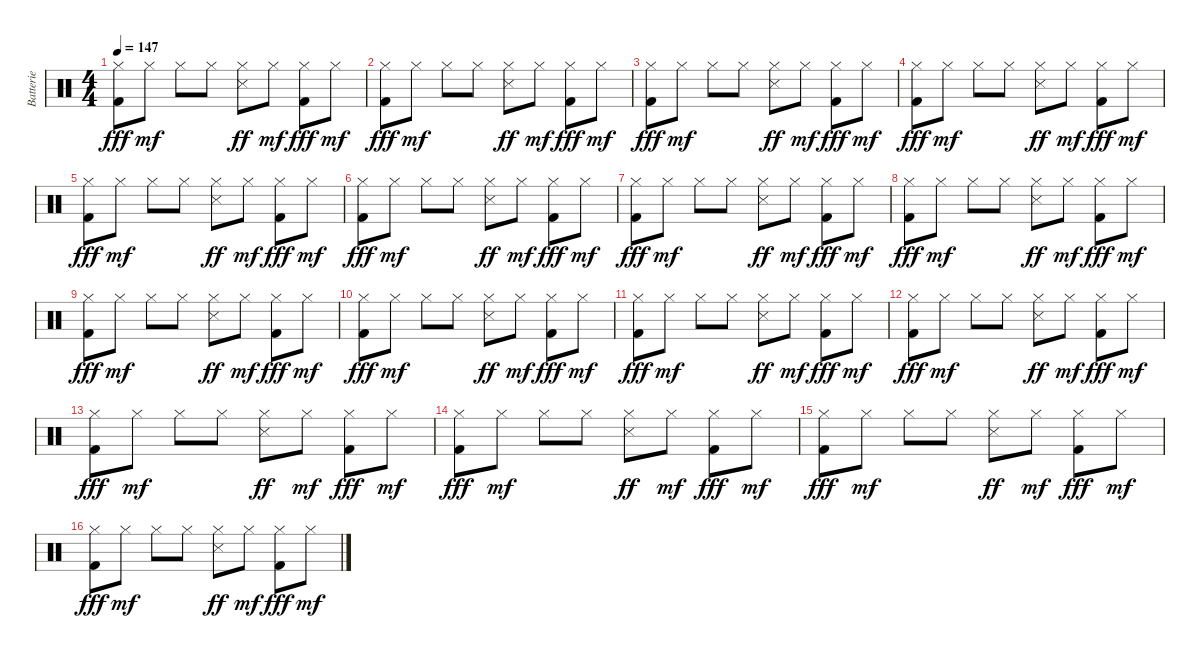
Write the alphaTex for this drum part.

\track ("Batterie" "Batterie") {instrument percussion}
\staff {score}
\articulation defaults
\ts (4 4)
\tempo 147
\clef neutral
\ks c
("Hi-Hat (closed)" "Kick (hit) 2").8{dy fff} "Hi-Hat (closed)".8{dy mf} "Hi-Hat (closed)".8 "Hi-Hat (closed)".8 ("Hi-Hat (closed)" "Snare (side stick) 3").8{dy ff} "Hi-Hat (closed)".8{dy mf} ("Hi-Hat (closed)" "Kick (hit) 2").8{dy fff} "Hi-Hat (closed)".8{dy mf} |
("Hi-Hat (closed)" "Kick (hit) 2").8{dy fff} "Hi-Hat (closed)".8{dy mf} "Hi-Hat (closed)".8 "Hi-Hat (closed)".8 ("Hi-Hat (closed)" "Snare (side stick) 3").8{dy ff} "Hi-Hat (closed)".8{dy mf} ("Hi-Hat (closed)" "Kick (hit) 2").8{dy fff} "Hi-Hat (closed)".8{dy mf} |
("Hi-Hat (closed)" "Kick (hit) 2").8{dy fff} "Hi-Hat (closed)".8{dy mf} "Hi-Hat (closed)".8 "Hi-Hat (closed)".8 ("Hi-Hat (closed)" "Snare (side stick) 3").8{dy ff} "Hi-Hat (closed)".8{dy mf} ("Hi-Hat (closed)" "Kick (hit) 2").8{dy fff} "Hi-Hat (closed)".8{dy mf} |
("Hi-Hat (closed)" "Kick (hit) 2").8{dy fff} "Hi-Hat (closed)".8{dy mf} "Hi-Hat (closed)".8 "Hi-Hat (closed)".8 ("Hi-Hat (closed)" "Snare (side stick) 3").8{dy ff} "Hi-Hat (closed)".8{dy mf} ("Hi-Hat (closed)" "Kick (hit) 2").8{dy fff} "Hi-Hat (closed)".8{dy mf} |
("Hi-Hat (closed)" "Kick (hit) 2").8{dy fff} "Hi-Hat (closed)".8{dy mf} "Hi-Hat (closed)".8 "Hi-Hat (closed)".8 ("Hi-Hat (closed)" "Snare (side stick) 3").8{dy ff} "Hi-Hat (closed)".8{dy mf} ("Hi-Hat (closed)" "Kick (hit) 2").8{dy fff} "Hi-Hat (closed)".8{dy mf} |
("Hi-Hat (closed)" "Kick (hit) 2").8{dy fff} "Hi-Hat (closed)".8{dy mf} "Hi-Hat (closed)".8 "Hi-Hat (closed)".8 ("Hi-Hat (closed)" "Snare (side stick) 3").8{dy ff} "Hi-Hat (closed)".8{dy mf} ("Hi-Hat (closed)" "Kick (hit) 2").8{dy fff} "Hi-Hat (closed)".8{dy mf} |
("Hi-Hat (closed)" "Kick (hit) 2").8{dy fff} "Hi-Hat (closed)".8{dy mf} "Hi-Hat (closed)".8 "Hi-Hat (closed)".8 ("Hi-Hat (closed)" "Snare (side stick) 3").8{dy ff} "Hi-Hat (closed)".8{dy mf} ("Hi-Hat (closed)" "Kick (hit) 2").8{dy fff} "Hi-Hat (closed)".8{dy mf} |
("Hi-Hat (closed)" "Kick (hit) 2").8{dy fff} "Hi-Hat (closed)".8{dy mf} "Hi-Hat (closed)".8 "Hi-Hat (closed)".8 ("Hi-Hat (closed)" "Snare (side stick) 3").8{dy ff} "Hi-Hat (closed)".8{dy mf} ("Hi-Hat (closed)" "Kick (hit) 2").8{dy fff} "Hi-Hat (closed)".8{dy mf} |
("Hi-Hat (closed)" "Kick (hit) 2").8{dy fff} "Hi-Hat (closed)".8{dy mf} "Hi-Hat (closed)".8 "Hi-Hat (closed)".8 ("Hi-Hat (closed)" "Snare (side stick) 3").8{dy ff} "Hi-Hat (closed)".8{dy mf} ("Hi-Hat (closed)" "Kick (hit) 2").8{dy fff} "Hi-Hat (closed)".8{dy mf} |
("Hi-Hat (closed)" "Kick (hit) 2").8{dy fff} "Hi-Hat (closed)".8{dy mf} "Hi-Hat (closed)".8 "Hi-Hat (closed)".8 ("Hi-Hat (closed)" "Snare (side stick) 3").8{dy ff} "Hi-Hat (closed)".8{dy mf} ("Hi-Hat (closed)" "Kick (hit) 2").8{dy fff} "Hi-Hat (closed)".8{dy mf} |
("Hi-Hat (closed)" "Kick (hit) 2").8{dy fff} "Hi-Hat (closed)".8{dy mf} "Hi-Hat (closed)".8 "Hi-Hat (closed)".8 ("Hi-Hat (closed)" "Snare (side stick) 3").8{dy ff} "Hi-Hat (closed)".8{dy mf} ("Hi-Hat (closed)" "Kick (hit) 2").8{dy fff} "Hi-Hat (closed)".8{dy mf} |
("Hi-Hat (closed)" "Kick (hit) 2").8{dy fff} "Hi-Hat (closed)".8{dy mf} "Hi-Hat (closed)".8 "Hi-Hat (closed)".8 ("Hi-Hat (closed)" "Snare (side stick) 3").8{dy ff} "Hi-Hat (closed)".8{dy mf} ("Hi-Hat (closed)" "Kick (hit) 2").8{dy fff} "Hi-Hat (closed)".8{dy mf} |
("Hi-Hat (closed)" "Kick (hit) 2").8{dy fff} "Hi-Hat (closed)".8{dy mf} "Hi-Hat (closed)".8 "Hi-Hat (closed)".8 ("Hi-Hat (closed)" "Snare (side stick) 3").8{dy ff} "Hi-Hat (closed)".8{dy mf} ("Hi-Hat (closed)" "Kick (hit) 2").8{dy fff} "Hi-Hat (closed)".8{dy mf} |
("Hi-Hat (closed)" "Kick (hit) 2").8{dy fff} "Hi-Hat (closed)".8{dy mf} "Hi-Hat (closed)".8 "Hi-Hat (closed)".8 ("Hi-Hat (closed)" "Snare (side stick) 3").8{dy ff} "Hi-Hat (closed)".8{dy mf} ("Hi-Hat (closed)" "Kick (hit) 2").8{dy fff} "Hi-Hat (closed)".8{dy mf} |
("Hi-Hat (closed)" "Kick (hit) 2").8{dy fff} "Hi-Hat (closed)".8{dy mf} "Hi-Hat (closed)".8 "Hi-Hat (closed)".8 ("Hi-Hat (closed)" "Snare (side stick) 3").8{dy ff} "Hi-Hat (closed)".8{dy mf} ("Hi-Hat (closed)" "Kick (hit) 2").8{dy fff} "Hi-Hat (closed)".8{dy mf} |
("Hi-Hat (closed)" "Kick (hit) 2").8{dy fff} "Hi-Hat (closed)".8{dy mf} "Hi-Hat (closed)".8 "Hi-Hat (closed)".8 ("Hi-Hat (closed)" "Snare (side stick) 3").8{dy ff} "Hi-Hat (closed)".8{dy mf} ("Hi-Hat (closed)" "Kick (hit) 2").8{dy fff} "Hi-Hat (closed)".8{dy mf}
